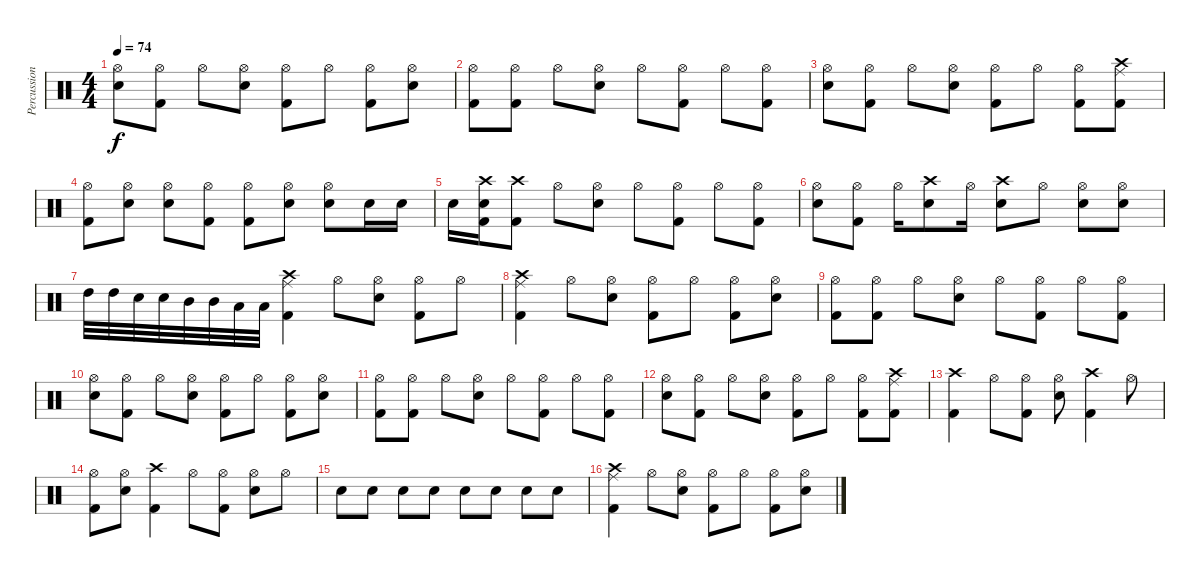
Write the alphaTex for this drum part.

\track ("Percussion" "Percussion") {instrument percussion}
\staff {score}
\articulation defaults
\ts (4 4)
\tempo 74
\clef neutral
\ks c
("Hi-Hat (open)" "Snare (hit) 2").8{dy f} ("Hi-Hat (open)" "Kick (hit) 2").8 "Hi-Hat (open)".8 ("Hi-Hat (open)" "Snare (hit) 2").8 ("Hi-Hat (open)" "Kick (hit) 2").8 "Hi-Hat (open)".8 ("Hi-Hat (open)" "Kick (hit) 2").8 ("Hi-Hat (open)" "Snare (hit) 2").8 |
("Hi-Hat (open)" "Kick (hit) 2").8 ("Hi-Hat (open)" "Kick (hit) 2").8 "Hi-Hat (open)".8 ("Hi-Hat (open)" "Snare (hit) 2").8 "Hi-Hat (open)".8 ("Hi-Hat (open)" "Kick (hit) 2").8 "Hi-Hat (open)".8 ("Hi-Hat (open)" "Kick (hit) 2").8 |
("Hi-Hat (open)" "Snare (hit) 2").8 ("Hi-Hat (open)" "Kick (hit) 2").8 "Hi-Hat (open)".8 ("Hi-Hat (open)" "Snare (hit) 2").8 ("Hi-Hat (open)" "Kick (hit) 2").8 "Hi-Hat (open)".8 ("Hi-Hat (open)" "Kick (hit) 2").8 ("Crash high (hit)" "Kick (hit) 2" "Ride (middle)").8 |
("Hi-Hat (open)" "Kick (hit) 2").8 ("Hi-Hat (open)" "Snare (hit) 2").8 ("Hi-Hat (open)" "Snare (hit) 2").8 ("Hi-Hat (open)" "Kick (hit) 2").8 ("Hi-Hat (open)" "Kick (hit) 2").8 ("Hi-Hat (open)" "Snare (hit) 2").8 ("Hi-Hat (open)" "Snare (hit) 2").8 "Snare (hit) 2".16 "Snare (hit) 2".16 |
"Snare (hit) 2".16 ("Crash high (hit)" "Kick (hit) 2" "Snare (hit) 2").16 ("Crash high (hit)" "Kick (hit) 2").8 "Hi-Hat (open)".8 ("Hi-Hat (open)" "Snare (hit) 2").8 "Hi-Hat (open)".8 ("Hi-Hat (open)" "Kick (hit) 2").8 "Hi-Hat (open)".8 ("Hi-Hat (open)" "Kick (hit) 2").8 |
("Hi-Hat (open)" "Snare (hit) 2").8 ("Hi-Hat (open)" "Kick (hit) 2").8 "Hi-Hat (open)".16 ("Crash high (hit)" "Snare (hit) 2").8 "Hi-Hat (open)".16 ("Crash high (hit)" "Snare (hit) 2").8 "Hi-Hat (open)".8 ("Hi-Hat (open)" "Snare (hit) 2").8 ("Hi-Hat (open)" "Snare (hit) 2").8 |
"High Tom (hit)".32 "High Tom (hit)".32 "Snare (hit) 2".32 "Snare (hit) 2".32 "Mid Tom (hit)".32 "Mid Tom (hit)".32 "Low Floor Tom (hit)".32 "Low Floor Tom (hit)".32 ("Ride (middle)" "Crash high (hit)" "Kick (hit) 2").4 "Hi-Hat (open)".8 ("Hi-Hat (open)" "Snare (hit) 2").8 ("Hi-Hat (open)" "Kick (hit) 2").8 "Hi-Hat (open)".8 |
("Ride (middle)" "Crash high (hit)" "Kick (hit) 2").4 "Hi-Hat (open)".8 ("Hi-Hat (open)" "Snare (hit) 2").8 ("Hi-Hat (open)" "Kick (hit) 2").8 "Hi-Hat (open)".8 ("Hi-Hat (open)" "Kick (hit) 2").8 ("Hi-Hat (open)" "Snare (hit) 2").8 |
("Hi-Hat (open)" "Kick (hit) 2").8 ("Hi-Hat (open)" "Kick (hit) 2").8 "Hi-Hat (open)".8 ("Hi-Hat (open)" "Snare (hit) 2").8 "Hi-Hat (open)".8 ("Hi-Hat (open)" "Kick (hit) 2").8 "Hi-Hat (open)".8 ("Hi-Hat (open)" "Kick (hit) 2").8 |
("Hi-Hat (open)" "Snare (hit) 2").8 ("Hi-Hat (open)" "Kick (hit) 2").8 "Hi-Hat (open)".8 ("Hi-Hat (open)" "Snare (hit) 2").8 ("Hi-Hat (open)" "Kick (hit) 2").8 "Hi-Hat (open)".8 ("Hi-Hat (open)" "Kick (hit) 2").8 ("Hi-Hat (open)" "Snare (hit) 2").8 |
("Hi-Hat (open)" "Kick (hit) 2").8 ("Hi-Hat (open)" "Kick (hit) 2").8 "Hi-Hat (open)".8 ("Hi-Hat (open)" "Snare (hit) 2").8 "Hi-Hat (open)".8 ("Hi-Hat (open)" "Kick (hit) 2").8 "Hi-Hat (open)".8 ("Hi-Hat (open)" "Kick (hit) 2").8 |
("Hi-Hat (open)" "Snare (hit) 2").8 ("Hi-Hat (open)" "Kick (hit) 2").8 "Hi-Hat (open)".8 ("Hi-Hat (open)" "Snare (hit) 2").8 ("Hi-Hat (open)" "Kick (hit) 2").8 "Hi-Hat (open)".8 ("Hi-Hat (open)" "Kick (hit) 2").8 ("Crash high (hit)" "Kick (hit) 2" "Ride (middle)").8 |
("Crash high (hit)" "Kick (hit) 2").4 "Hi-Hat (open)".8 ("Hi-Hat (open)" "Kick (hit) 2").8 ("Hi-Hat (open)" "Snare (hit) 2").8 ("Crash high (hit)" "Kick (hit) 2").4 "Hi-Hat (open)".8 |
("Hi-Hat (open)" "Kick (hit) 2").8 ("Hi-Hat (open)" "Snare (hit) 2").8 ("Crash high (hit)" "Kick (hit) 2").4 "Hi-Hat (open)".8 ("Hi-Hat (open)" "Kick (hit) 2").8 ("Hi-Hat (open)" "Snare (hit) 2").8 "Hi-Hat (open)".8 |
"Snare (hit) 2".8 "Snare (hit) 2".8 "Snare (hit) 2".8 "Snare (hit) 2".8 "Snare (hit) 2".8 "Snare (hit) 2".8 "Snare (hit) 2".8 "Snare (hit) 2".8 |
("Ride (middle)" "Crash high (hit)" "Kick (hit) 2").4 "Hi-Hat (open)".8 ("Hi-Hat (open)" "Snare (hit) 2").8 ("Hi-Hat (open)" "Kick (hit) 2").8 "Hi-Hat (open)".8 ("Hi-Hat (open)" "Kick (hit) 2").8 ("Hi-Hat (open)" "Snare (hit) 2").8
